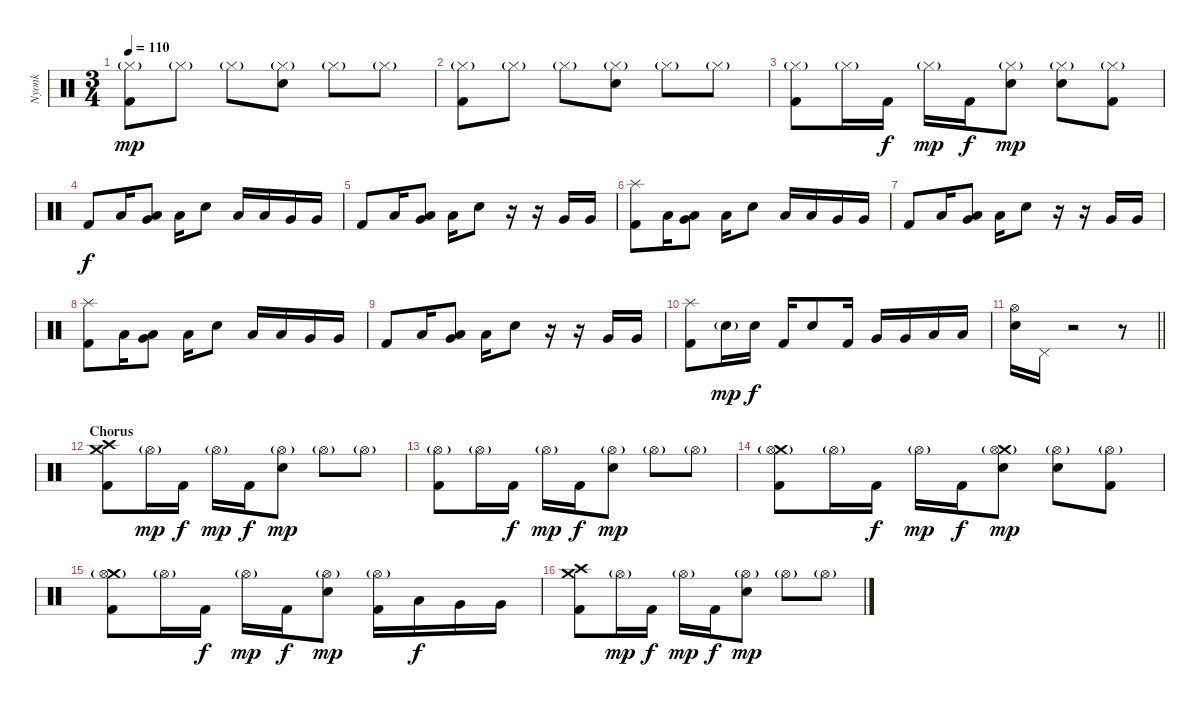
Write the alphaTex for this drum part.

\track ("Nyonk" "Nyonk") {instrument percussion}
\staff {score}
\articulation defaults
\ts (3 4)
\tempo 110
\clef neutral
\ks c
("Hi-Hat (closed)"{g} "Kick (hit) 2").8{dy mp} "Hi-Hat (closed)"{g}.8 "Hi-Hat (closed)"{g}.8 ("Hi-Hat (closed)"{g} "Electric Snare (hit)").8 "Hi-Hat (closed)"{g}.8 "Hi-Hat (closed)"{g}.8 |
("Hi-Hat (closed)"{g} "Kick (hit) 2").8 "Hi-Hat (closed)"{g}.8 "Hi-Hat (closed)"{g}.8 ("Hi-Hat (closed)"{g} "Electric Snare (hit)").8 "Hi-Hat (closed)"{g}.8 "Hi-Hat (closed)"{g}.8 |
("Hi-Hat (closed)"{g} "Kick (hit) 2").8 "Hi-Hat (closed)"{g}.16 "Kick (hit) 2".16{dy f} "Hi-Hat (closed)"{g}.16{dy mp} "Kick (hit) 2".16{dy f} ("Hi-Hat (closed)"{g} "Electric Snare (hit)").8{dy mp} ("Hi-Hat (closed)"{g} "Electric Snare (hit)").8 ("Hi-Hat (closed)"{g} "Kick (hit) 2").8 |
"Kick (hit) 2".8{dy f} "Low Tom (hit)".16 ("Low Tom (hit)" "Very Low Tom (hit)").8 "Low Tom (hit)".16 "Electric Snare (hit)".8 "Low Tom (hit)".16 "Low Tom (hit)".16 "Very Low Tom (hit)".16 "Very Low Tom (hit)".16 |
"Kick (hit) 2".8 "Low Tom (hit)".16 ("Low Tom (hit)" "Very Low Tom (hit)").8 "Low Tom (hit)".16 "Electric Snare (hit)".8 r.16 r.16 "Very Low Tom (hit)".16 "Very Low Tom (hit)".16 |
("Splash (hit)" "Kick (hit) 2").8 "Low Tom (hit)".16 ("Low Tom (hit)" "Very Low Tom (hit)").8 "Low Tom (hit)".16 "Electric Snare (hit)".8 "Low Tom (hit)".16 "Low Tom (hit)".16 "Very Low Tom (hit)".16 "Very Low Tom (hit)".16 |
"Kick (hit) 2".8 "Low Tom (hit)".16 ("Low Tom (hit)" "Very Low Tom (hit)").8 "Low Tom (hit)".16 "Electric Snare (hit)".8 r.16 r.16 "Very Low Tom (hit)".16 "Very Low Tom (hit)".16 |
("Splash (hit)" "Kick (hit) 2").8 "Low Tom (hit)".16 ("Low Tom (hit)" "Very Low Tom (hit)").8 "Low Tom (hit)".16 "Electric Snare (hit)".8 "Low Tom (hit)".16 "Low Tom (hit)".16 "Very Low Tom (hit)".16 "Very Low Tom (hit)".16 |
"Kick (hit) 2".8 "Low Tom (hit)".16 ("Low Tom (hit)" "Very Low Tom (hit)").8 "Low Tom (hit)".16 "Electric Snare (hit)".8 r.16 r.16 "Very Low Tom (hit)".16 "Very Low Tom (hit)".16 |
("Splash (hit)" "Kick (hit) 2").8 "Electric Snare (hit)"{g}.16{dy mp} "Electric Snare (hit)".16{dy f} "Kick (hit) 2".16 "Electric Snare (hit)".8 "Kick (hit) 2".16 "Very Low Tom (hit)".16 "Very Low Tom (hit)".16 "Low Floor Tom (hit)".16 "Low Floor Tom (hit)".16 |
\barLineRight lightlight
("Hi-Hat (open)" "Electric Snare (hit)").16 "Pedal Hi-Hat (hit)".16 r.2 r.8 |
\section ("" "Chorus")
("Crash medium (hit)" "Crash high (hit)" "Kick (hit) 2").8 "Hi-Hat (open)"{g}.16{dy mp} "Kick (hit) 2".16{dy f} "Hi-Hat (open)"{g}.16{dy mp} "Kick (hit) 2".16{dy f} ("Hi-Hat (open)"{g} "Electric Snare (hit)").8{dy mp} "Hi-Hat (open)"{g}.8 "Hi-Hat (open)"{g}.8 |
("Hi-Hat (open)"{g} "Kick (hit) 2").8 "Hi-Hat (open)"{g}.16 "Kick (hit) 2".16{dy f} "Hi-Hat (open)"{g}.16{dy mp} "Kick (hit) 2".16{dy f} ("Hi-Hat (open)"{g} "Electric Snare (hit)").8{dy mp} "Hi-Hat (open)"{g}.8 "Hi-Hat (open)"{g}.8 |
("Crash medium (hit)" "Hi-Hat (open)"{g} "Kick (hit) 2").8 "Hi-Hat (open)"{g}.16 "Kick (hit) 2".16{dy f} "Hi-Hat (open)"{g}.16{dy mp} "Kick (hit) 2".16{dy f} ("Crash medium (hit)" "Hi-Hat (open)"{g} "Electric Snare (hit)").8{dy mp} ("Hi-Hat (open)"{g} "Electric Snare (hit)").8 ("Hi-Hat (open)"{g} "Kick (hit) 2").8 |
("Crash medium (hit)" "Hi-Hat (open)"{g} "Kick (hit) 2").8 "Hi-Hat (open)"{g}.16 "Kick (hit) 2".16{dy f} "Hi-Hat (open)"{g}.16{dy mp} "Kick (hit) 2".16{dy f} ("Hi-Hat (open)"{g} "Electric Snare (hit)").8{dy mp} ("Hi-Hat (open)"{g} "Kick (hit) 2").16 "Low Tom (hit)".16{dy f} "Very Low Tom (hit)".16 "Very Low Tom (hit)".16 |
("Crash medium (hit)" "Crash high (hit)" "Kick (hit) 2").8 "Hi-Hat (open)"{g}.16{dy mp} "Kick (hit) 2".16{dy f} "Hi-Hat (open)"{g}.16{dy mp} "Kick (hit) 2".16{dy f} ("Hi-Hat (open)"{g} "Electric Snare (hit)").8{dy mp} "Hi-Hat (open)"{g}.8 "Hi-Hat (open)"{g}.8
